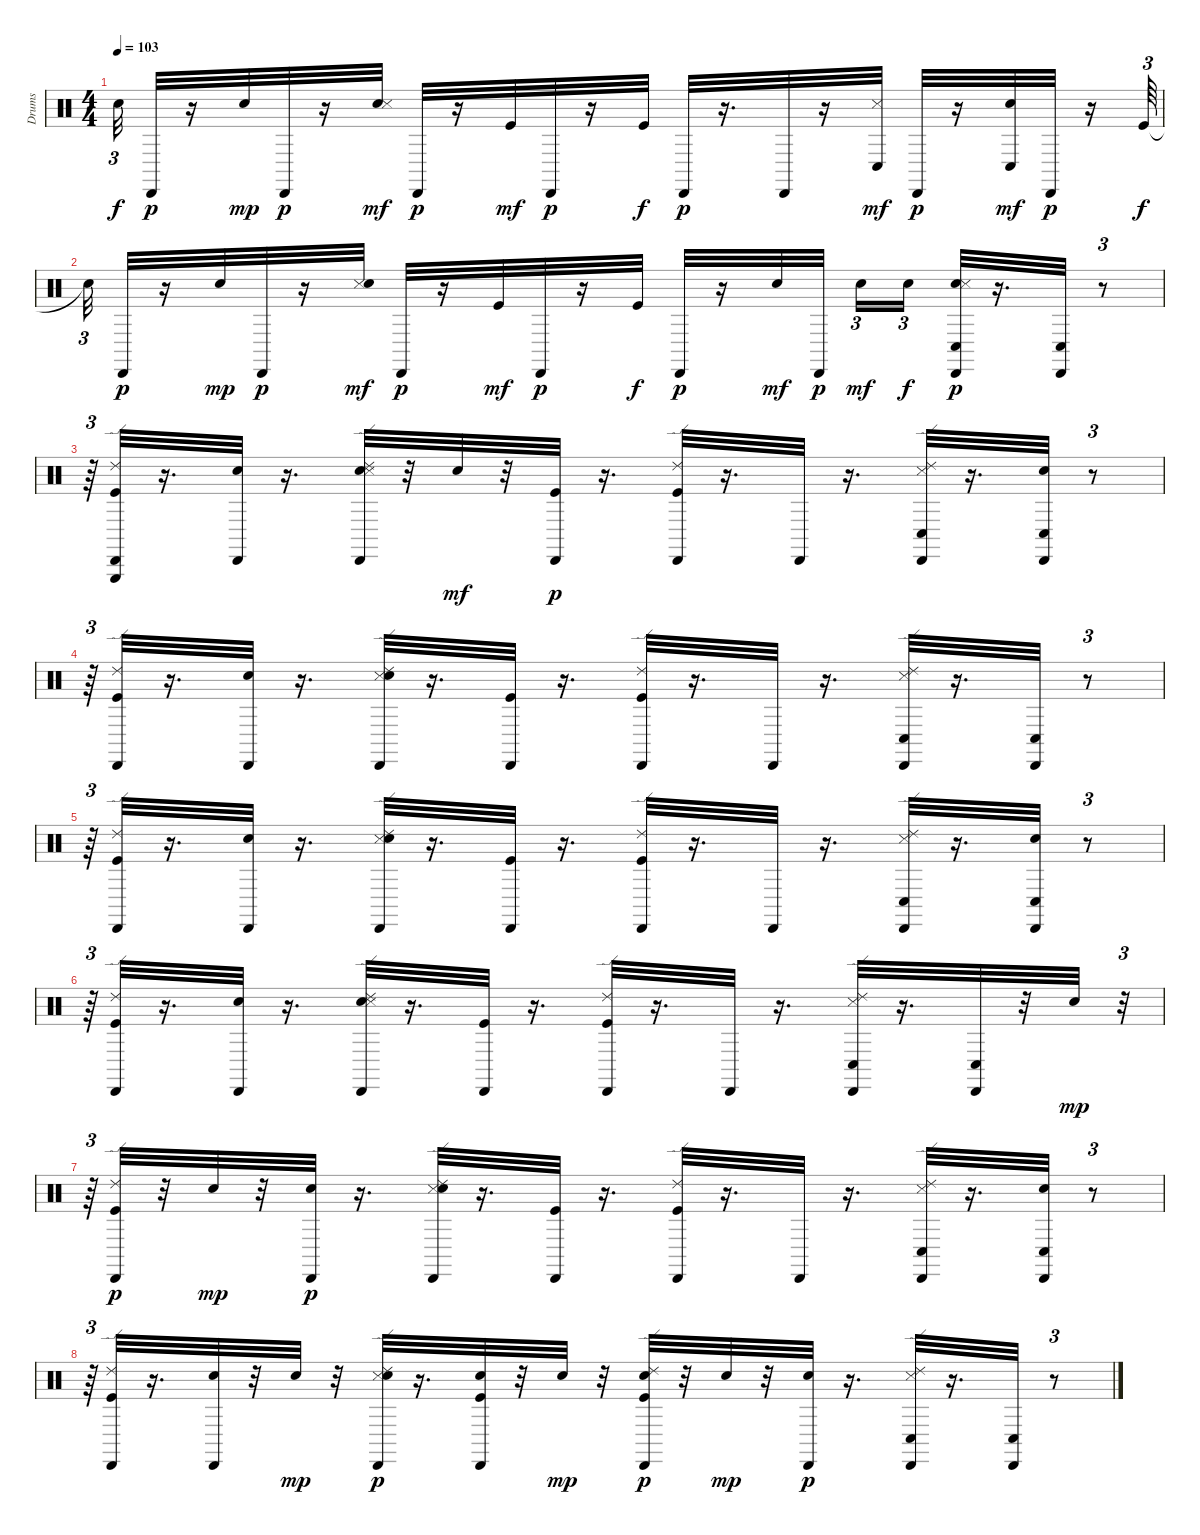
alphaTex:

\track ("Drums" "Drums") {instrument percussion}
\staff {score}
\articulation defaults
\ts (4 4)
\tempo 103
\clef neutral
\ks c "Snare (hit)"{t}.32{tu (3 2) dy f} "Cabasa (hit)".32{dy p}
r.16 "Snare (hit) 2".32{dy mp} "Cabasa (hit)".32{dy p} r.16 ("Snare (hit) 2" "Snare (side stick) 3").32{dy mf} "Cabasa (hit)".32{dy p} r.16 "Kick (hit)".32{dy mf} "Cabasa (hit)".32{dy p} r.16 "Kick (hit)".32{dy f} "Cabasa (hit)".32{dy p} r.16{d} "Cabasa (hit)".32 r.16 ("Conga low (hit)" "Snare (side stick) 3").32{dy mf} "Cabasa (hit)".32{dy p} r.16 ("Snare (hit) 2" "Conga low (hit)").32{dy mf} "Cabasa (hit)".32{dy p} r.16 "Kick (hit)".64{tu (3 2) dy f} |
"Snare (hit)"{t}.32{tu (3 2)} "Cabasa (hit)".32{dy p} r.16 "Snare (hit) 2".32{dy mp} "Cabasa (hit)".32{dy p} r.16 ("Snare (side stick) 3" "Snare (hit) 2").32{dy mf} "Cabasa (hit)".32{dy p} r.16 "Kick (hit)".32{dy mf} "Cabasa (hit)".32{dy p} r.16 "Kick (hit)".32{dy f} "Cabasa (hit)".32{dy p} r.16 "Snare (hit) 2".32{dy mf} "Cabasa (hit)".32{dy p} "Snare (hit) 2".16{tu (3 2) dy mf} "Snare (hit) 2".16{tu (3 2) dy f} ("Snare (hit) 2" "Conga low (hit)" "Snare (side stick) 3" "Cabasa (hit)").32{dy p} r.16{d} ("Conga low (hit)" "Cabasa (hit)").32 r.8{tu (3 2)} |
r.64{tu (3 2)} ("Ride (edge) 2" "Kick (hit)" "Triangle (hit)" "Cabasa (hit)").32 r.16{d} ("Snare (hit) 2" "Cabasa (hit)").32 r.16{d} ("Snare (hit) 2" "Ride (edge) 2" "Snare (side stick) 3" "Cabasa (hit)").32 r.32 "Snare (hit) 2".32{dy mf} r.32 ("Kick (hit)" "Cabasa (hit)").32{dy p} r.16{d} ("Kick (hit)" "Ride (edge) 2" "Cabasa (hit)").32 r.16{d} "Cabasa (hit)".32 r.16{d} ("Snare (side stick) 3" "Conga low (hit)" "Ride (edge) 2" "Cabasa (hit)").32 r.16{d} ("Conga low (hit)" "Snare (hit) 2" "Cabasa (hit)").32 r.8{tu (3 2)} |
r.64{tu (3 2)} ("Ride (edge) 2" "Kick (hit)" "Cabasa (hit)").32 r.16{d} ("Snare (hit) 2" "Cabasa (hit)").32 r.16{d} ("Snare (side stick) 3" "Snare (hit) 2" "Ride (edge) 2" "Cabasa (hit)").32 r.16{d} ("Kick (hit)" "Cabasa (hit)").32 r.16{d} ("Kick (hit)" "Ride (edge) 2" "Cabasa (hit)").32 r.16{d} "Cabasa (hit)".32 r.16{d} ("Snare (side stick) 3" "Ride (edge) 2" "Conga low (hit)" "Cabasa (hit)").32 r.16{d} ("Conga low (hit)" "Cabasa (hit)").32 r.8{tu (3 2)} |
r.64{tu (3 2)} ("Ride (edge) 2" "Kick (hit)" "Cabasa (hit)").32 r.16{d} ("Snare (hit) 2" "Cabasa (hit)").32 r.16{d} ("Snare (side stick) 3" "Ride (edge) 2" "Snare (hit) 2" "Cabasa (hit)").32 r.16{d} ("Kick (hit)" "Cabasa (hit)").32 r.16{d} ("Kick (hit)" "Ride (edge) 2" "Cabasa (hit)").32 r.16{d} "Cabasa (hit)".32 r.16{d} ("Snare (side stick) 3" "Conga low (hit)" "Ride (edge) 2" "Cabasa (hit)").32 r.16{d} ("Conga low (hit)" "Snare (hit) 2" "Cabasa (hit)").32 r.8{tu (3 2)} |
r.64{tu (3 2)} ("Kick (hit)" "Ride (edge) 2" "Cabasa (hit)").32 r.16{d} ("Snare (hit) 2" "Cabasa (hit)").32 r.16{d} ("Snare (hit) 2" "Ride (edge) 2" "Snare (side stick) 3" "Cabasa (hit)").32 r.16{d} ("Kick (hit)" "Cabasa (hit)").32 r.16{d} ("Kick (hit)" "Ride (edge) 2" "Cabasa (hit)").32 r.16{d} "Cabasa (hit)".32 r.16{d} ("Ride (edge) 2" "Snare (side stick) 3" "Conga low (hit)" "Cabasa (hit)").32 r.16{d} ("Conga low (hit)" "Cabasa (hit)").32 r.32 "Snare (hit) 2".32{dy mp} r.32{tu (3 2)} |
r.64{tu (3 2)} ("Kick (hit)" "Ride (edge) 2" "Cabasa (hit)").32{dy p} r.32 "Snare (hit) 2".32{dy mp} r.32 ("Snare (hit) 2" "Cabasa (hit)").32{dy p} r.16{d} ("Snare (side stick) 3" "Ride (edge) 2" "Snare (hit) 2" "Cabasa (hit)").32 r.16{d} ("Kick (hit)" "Cabasa (hit)").32 r.16{d} ("Ride (edge) 2" "Kick (hit)" "Cabasa (hit)").32 r.16{d} "Cabasa (hit)".32 r.16{d} ("Conga low (hit)" "Snare (side stick) 3" "Ride (edge) 2" "Cabasa (hit)").32 r.16{d} ("Conga low (hit)" "Snare (hit) 2" "Cabasa (hit)").32 r.8{tu (3 2)} |
r.64{tu (3 2)} ("Ride (edge) 2" "Kick (hit)" "Cabasa (hit)").32 r.16{d} ("Snare (hit) 2" "Cabasa (hit)").32 r.32 "Snare (hit) 2".32{dy mp} r.32 ("Snare (side stick) 3" "Snare (hit) 2" "Ride (edge) 2" "Cabasa (hit)").32{dy p} r.16{d} ("Snare (hit) 2" "Kick (hit)" "Cabasa (hit)").32 r.32 "Snare (hit) 2".32{dy mp} r.32 ("Snare (hit) 2" "Kick (hit)" "Ride (edge) 2" "Cabasa (hit)").32{dy p} r.32 "Snare (hit) 2".32{dy mp} r.32 ("Snare (hit) 2" "Cabasa (hit)").32{dy p} r.16{d} ("Conga low (hit)" "Snare (side stick) 3" "Ride (edge) 2" "Cabasa (hit)").32 r.16{d} ("Conga low (hit)" "Cabasa (hit)").32 r.8{tu (3 2)}
